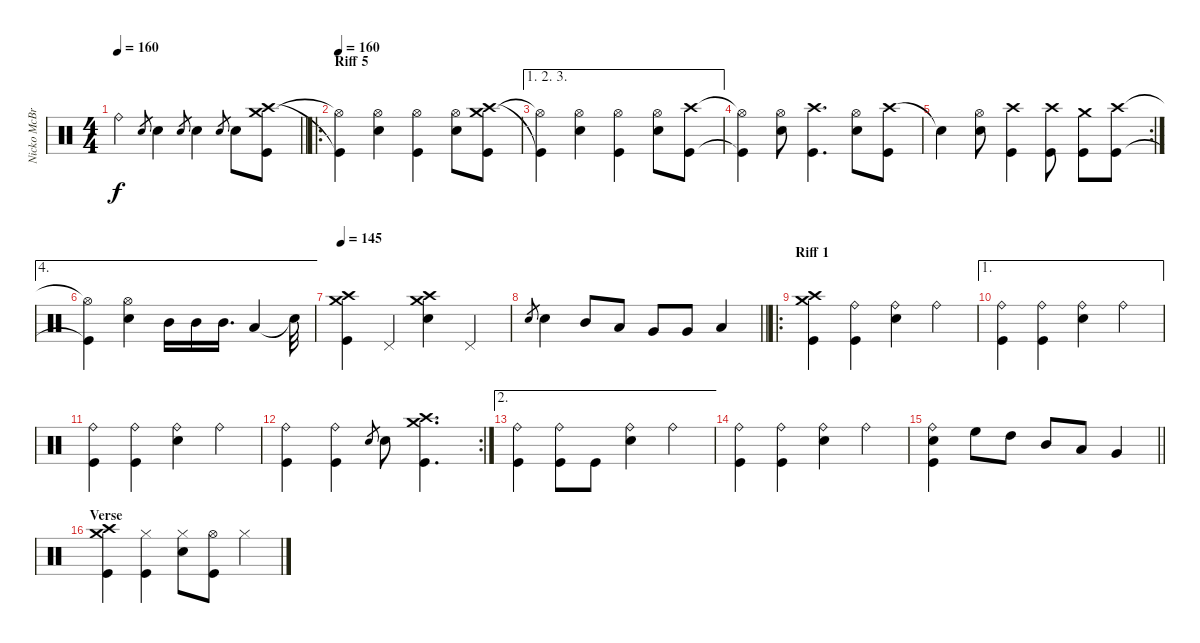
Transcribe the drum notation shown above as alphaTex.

\track ("Nicko McBrain" "Nicko McBr") {instrument percussion}
\staff {score}
\articulation defaults
\ts (4 4)
\tempo 160
\clef neutral
\barLineRight lightlight
\ks c "Ride (bell)".4{dy f} "Snare (hit) 2".8{gr} "Snare (hit) 2".4 "Snare (hit) 2".8{gr} "Snare (hit) 2".4 "Snare (hit) 2".8{gr} "Snare (hit) 2".8
("Crash medium (hit)" "Crash high (hit)" "Kick (hit)").8 |
\ro
\section ("" "Riff 5")
\tempo 160
("Hi-Hat (open)"{t} "Kick (hit)"{t}).4 ("Hi-Hat (open)" "Snare (hit) 2").4 ("Hi-Hat (open)" "Kick (hit)").4 ("Hi-Hat (open)" "Snare (hit) 2").8 ("Crash medium (hit)" "Crash high (hit)" "Kick (hit)").8 |
\ae (1 2 3)
("Hi-Hat (open)"{t} "Kick (hit)"{t}).4 ("Hi-Hat (open)" "Snare (hit) 2").4 ("Hi-Hat (open)" "Kick (hit)").4 ("Hi-Hat (open)" "Snare (hit) 2").8 ("Crash high (hit)" "Kick (hit)").8 |
("Hi-Hat (open)"{t} "Kick (hit)"{t}).4 ("Hi-Hat (open)" "Snare (hit) 2").8 ("Crash high (hit)" "Kick (hit)").4{d} ("Hi-Hat (open)" "Snare (hit) 2").8 ("Crash high (hit)" "Kick (hit)").8 |
\rc 2 "Snare (hit)"{t}.4
("Hi-Hat (open)" "Snare (hit) 2").8 ("Crash high (hit)" "Kick (hit)").4 ("Crash high (hit)" "Kick (hit)").8 ("Crash medium (hit)" "Kick (hit)").8 ("Crash high (hit)" "Kick (hit)").8 |
\ae 4
("Hi-Hat (open)"{t} "Kick (hit)"{t}).4 ("Hi-Hat (open)" "Snare (hit) 2").4 "Mid Tom (hit)".16 "Mid Tom (hit)".16 "Mid Tom (hit)".16{d} "Low Tom (hit)".4 "Snare (hit)"{t}.32 |
\tempo 145
("Crash medium (hit)" "Crash high (hit)" "Kick (hit)").4 "Pedal Hi-Hat (hit)".4 ("Crash medium (hit)" "Crash high (hit)" "Snare (hit) 2").4 "Pedal Hi-Hat (hit)".4 |
\barLineRight lightlight "Snare (hit) 2".8{gr} "Snare (hit) 2".4 "Mid Tom (hit)".8 "Low Tom (hit)".8 "Very Low Tom (hit)".8 "Very Low Tom (hit)".8 "Low Floor Tom (hit)".4
|
\ro
\section ("" "Riff 1")
("Crash medium (hit)" "Crash high (hit)" "Kick (hit)").4 ("Ride (bell)" "Kick (hit)").4 ("Ride (bell)" "Snare (hit) 2").4 "Ride (bell)".4 |
\ae 1
("Ride (bell)" "Kick (hit)").4 ("Ride (bell)" "Kick (hit)").4 ("Ride (bell)" "Snare (hit) 2").4 "Ride (bell)".4 |
("Ride (bell)" "Kick (hit)").4 ("Ride (bell)" "Kick (hit)").4 ("Ride (bell)" "Snare (hit) 2").4 "Ride (bell)".4 |
\rc 2
("Ride (bell)" "Kick (hit)").4 ("Ride (bell)" "Kick (hit)").4 "Snare (hit) 2".8{gr} "Snare (hit) 2".8 ("Crash medium (hit)" "Crash high (hit)" "Kick (hit)").4{d} |
\ae 2
("Ride (bell)" "Kick (hit)").4 ("Ride (bell)" "Kick (hit)").8 "Kick (hit)".8 ("Ride (bell)" "Snare (hit) 2").4 "Ride (bell)".4 |
("Ride (bell)" "Kick (hit)").4 ("Ride (bell)" "Kick (hit)").4 ("Ride (bell)" "Snare (hit) 2").4 "Ride (bell)".4 |
\barLineRight lightlight
("Ride (bell)" "Snare (hit) 2" "Kick (hit)").4 "High Floor Tom (hit)".8 "High Tom (hit)".8 "Mid Tom (hit)".8 "Low Tom (hit)".8 "Very Low Tom (hit)".4 |
\section ("" "Verse")
("Crash medium (hit)" "Crash high (hit)" "Kick (hit)").4 ("Hi-Hat (closed)" "Kick (hit)").4 ("Hi-Hat (closed)" "Snare (hit) 2").8 ("Hi-Hat (open)" "Kick (hit)").8 "Hi-Hat (closed)".4
